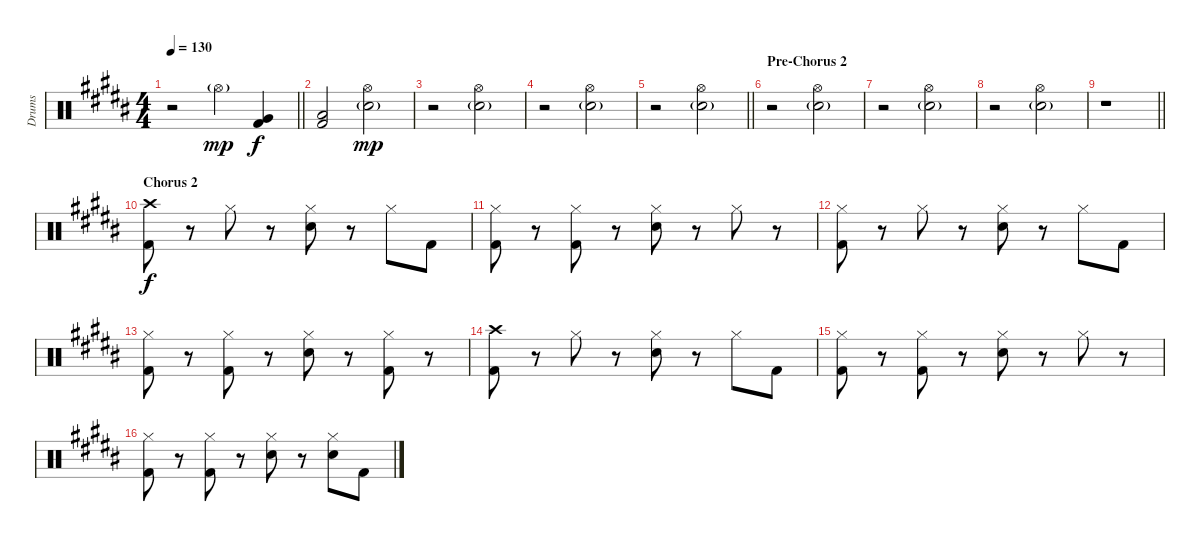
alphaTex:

\track ("Drums" "Drums") {instrument percussion}
\staff {score}
\articulation defaults
\ts (4 4)
\tempo 130
\clef neutral
\barLineRight lightlight
\ks b
r.2{dy mp} "Hi-Hat (open)"{g}.4 ("Very Low Tom (hit)" "Kick (hit) 2").4{dy f} |
("Low Floor Tom (hit)" "Kick (hit) 2").2 ("Hi-Hat (open)" "Electric Snare (hit)"{g}).2{dy mp} |
r.2 ("Hi-Hat (open)" "Electric Snare (hit)"{g}).2 |
r.2 ("Hi-Hat (open)" "Electric Snare (hit)"{g}).2 |
\barLineRight lightlight
r.2 ("Hi-Hat (open)" "Electric Snare (hit)"{g}).2 |
\section ("" "Pre-Chorus 2")
r.2 ("Hi-Hat (open)" "Electric Snare (hit)"{g}).2 |
r.2 ("Hi-Hat (open)" "Electric Snare (hit)"{g}).2 |
r.2 ("Hi-Hat (open)" "Electric Snare (hit)"{g}).2 |
\barLineRight lightlight
r.1 |
\section ("" "Chorus 2")
("Crash high (hit)" "Kick (hit) 2").8{dy f} r.8 "Hi-Hat (closed)".8 r.8 ("Hi-Hat (closed)" "Electric Snare (hit)").8 r.8 "Hi-Hat (closed)".8 "Kick (hit) 2".8 |
("Hi-Hat (closed)" "Kick (hit) 2").8 r.8 ("Hi-Hat (closed)" "Kick (hit) 2").8 r.8 ("Hi-Hat (closed)" "Electric Snare (hit)").8 r.8 "Hi-Hat (closed)".8 r.8 |
("Hi-Hat (closed)" "Kick (hit) 2").8 r.8 "Hi-Hat (closed)".8 r.8 ("Hi-Hat (closed)" "Electric Snare (hit)").8 r.8 "Hi-Hat (closed)".8 "Kick (hit) 2".8 |
("Hi-Hat (closed)" "Kick (hit) 2").8 r.8 ("Hi-Hat (closed)" "Kick (hit) 2").8 r.8 ("Hi-Hat (closed)" "Electric Snare (hit)").8 r.8 ("Hi-Hat (closed)" "Kick (hit) 2").8 r.8 |
("Crash high (hit)" "Kick (hit) 2").8 r.8 "Hi-Hat (closed)".8 r.8 ("Hi-Hat (closed)" "Electric Snare (hit)").8 r.8 "Hi-Hat (closed)".8 "Kick (hit) 2".8 |
("Hi-Hat (closed)" "Kick (hit) 2").8 r.8 ("Hi-Hat (closed)" "Kick (hit) 2").8 r.8 ("Hi-Hat (closed)" "Electric Snare (hit)").8 r.8 "Hi-Hat (closed)".8 r.8 |
("Hi-Hat (closed)" "Kick (hit) 2").8 r.8 ("Hi-Hat (closed)" "Kick (hit) 2").8 r.8 ("Hi-Hat (closed)" "Electric Snare (hit)").8 r.8 ("Hi-Hat (closed)" "Electric Snare (hit)").8 "Kick (hit) 2".8
